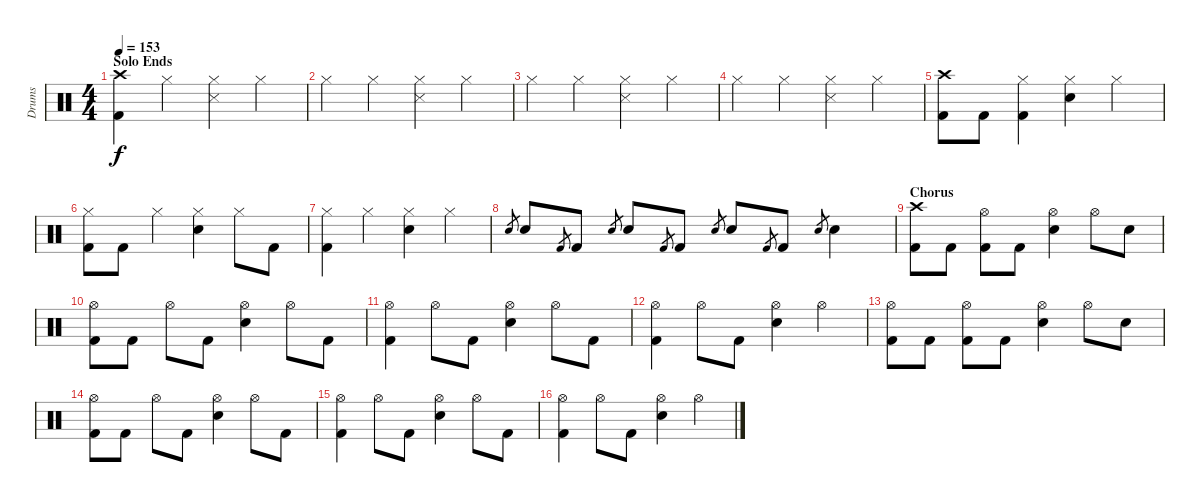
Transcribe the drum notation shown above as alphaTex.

\track ("Drums" "Drums") {instrument percussion}
\staff {score}
\articulation defaults
\ts (4 4)
\section ("" "Solo Ends")
\tempo 153
\clef neutral
\ks c
("Crash high (hit)" "Kick (hit) 2").4{dy f volume 11} "Hi-Hat (closed)".4 ("Hi-Hat (closed)" "Snare (side stick) 3").4 "Hi-Hat (closed)".4 |
"Hi-Hat (closed)".4 "Hi-Hat (closed)".4 ("Hi-Hat (closed)" "Snare (side stick) 3").4 "Hi-Hat (closed)".4 |
"Hi-Hat (closed)".4 "Hi-Hat (closed)".4 ("Hi-Hat (closed)" "Snare (side stick) 3").4 "Hi-Hat (closed)".4 |
"Hi-Hat (closed)".4 "Hi-Hat (closed)".4 ("Hi-Hat (closed)" "Snare (side stick) 3").4 "Hi-Hat (closed)".4 |
("Crash high (hit)" "Kick (hit) 2").8{volume 15} "Kick (hit) 2".8 ("Hi-Hat (closed)" "Kick (hit) 2").4 ("Hi-Hat (closed)" "Electric Snare (hit)").4 "Hi-Hat (closed)".4 |
("Hi-Hat (closed)" "Kick (hit) 2").8 "Kick (hit) 2".8 "Hi-Hat (closed)".4 ("Hi-Hat (closed)" "Electric Snare (hit)").4 "Hi-Hat (closed)".8 "Kick (hit) 2".8 |
("Hi-Hat (closed)" "Kick (hit) 2").4 "Hi-Hat (closed)".4 ("Hi-Hat (closed)" "Electric Snare (hit)").4 "Hi-Hat (closed)".4 |
"Electric Snare (hit)".8{gr} "Electric Snare (hit)".8 "Kick (hit) 2".8{gr} "Kick (hit) 2".8 "Electric Snare (hit)".8{gr} "Electric Snare (hit)".8 "Kick (hit) 2".8{gr} "Kick (hit) 2".8 "Electric Snare (hit)".8{gr} "Electric Snare (hit)".8 "Kick (hit) 2".8{gr} "Kick (hit) 2".8 "Electric Snare (hit)".8{gr} "Electric Snare (hit)".4 |
\section ("" "Chorus")
("Crash high (hit)" "Kick (hit) 2").8{volume 16} "Kick (hit) 2".8 ("Hi-Hat (open)" "Kick (hit) 2").8 "Kick (hit) 2".8 ("Hi-Hat (open)" "Electric Snare (hit)").4 "Hi-Hat (open)".8 "Electric Snare (hit)".8 |
("Hi-Hat (open)" "Kick (hit) 2").8 "Kick (hit) 2".8 "Hi-Hat (open)".8 "Kick (hit) 2".8 ("Hi-Hat (open)" "Electric Snare (hit)").4 "Hi-Hat (open)".8 "Kick (hit) 2".8 |
("Hi-Hat (open)" "Kick (hit) 2").4 "Hi-Hat (open)".8 "Kick (hit) 2".8 ("Hi-Hat (open)" "Electric Snare (hit)").4 "Hi-Hat (open)".8 "Kick (hit) 2".8 |
("Hi-Hat (open)" "Kick (hit) 2").4 "Hi-Hat (open)".8 "Kick (hit) 2".8 ("Hi-Hat (open)" "Electric Snare (hit)").4 "Hi-Hat (open)".4 |
("Hi-Hat (open)" "Kick (hit) 2").8 "Kick (hit) 2".8 ("Hi-Hat (open)" "Kick (hit) 2").8 "Kick (hit) 2".8 ("Hi-Hat (open)" "Electric Snare (hit)").4 "Hi-Hat (open)".8 "Electric Snare (hit)".8 |
("Hi-Hat (open)" "Kick (hit) 2").8 "Kick (hit) 2".8 "Hi-Hat (open)".8 "Kick (hit) 2".8 ("Hi-Hat (open)" "Electric Snare (hit)").4 "Hi-Hat (open)".8 "Kick (hit) 2".8 |
("Hi-Hat (open)" "Kick (hit) 2").4 "Hi-Hat (open)".8 "Kick (hit) 2".8 ("Hi-Hat (open)" "Electric Snare (hit)").4 "Hi-Hat (open)".8 "Kick (hit) 2".8 |
("Hi-Hat (open)" "Kick (hit) 2").4 "Hi-Hat (open)".8 "Kick (hit) 2".8 ("Hi-Hat (open)" "Electric Snare (hit)").4 "Hi-Hat (open)".4
